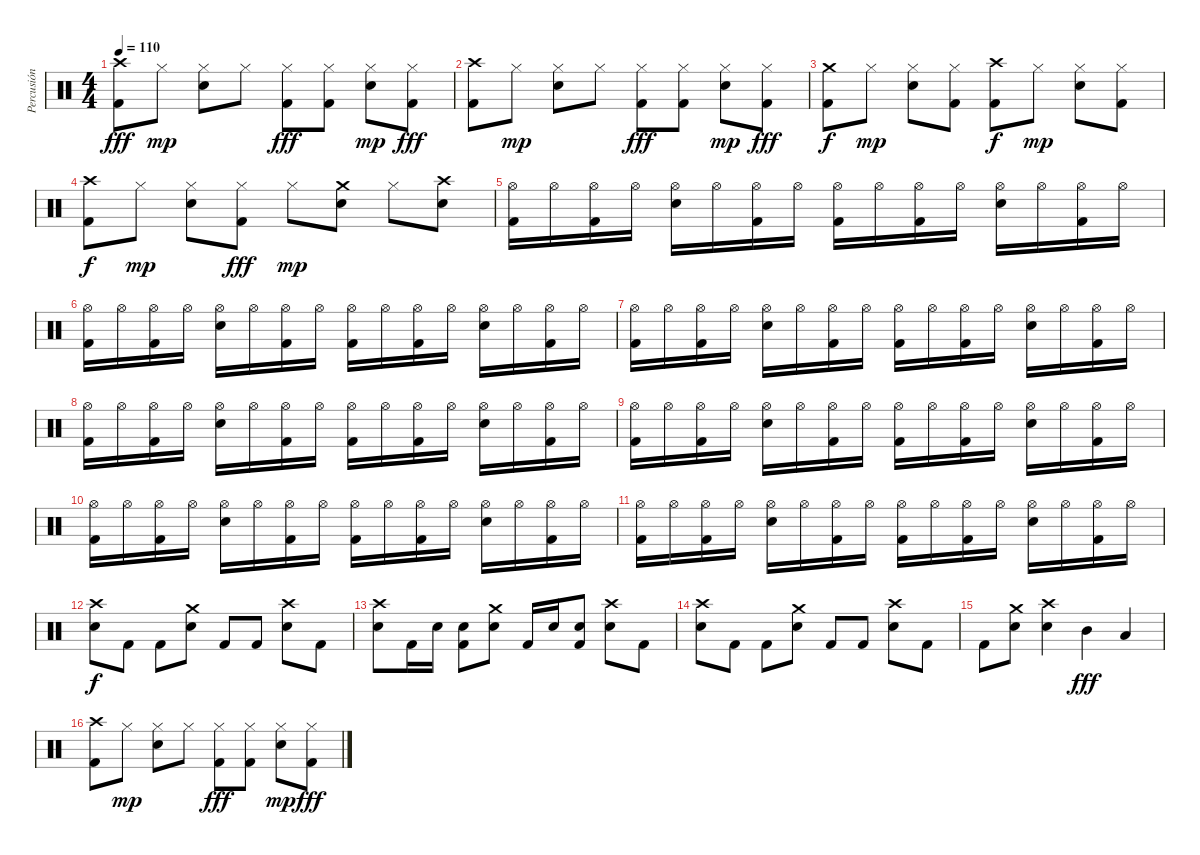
\track ("Percusión" "Percusión") {instrument percussion}
\staff {score}
\articulation defaults
\ts (4 4)
\tempo 110
\clef neutral
\ks c
("Crash high (hit)" "Kick (hit) 2").8{dy fff} "Hi-Hat (closed)".8{dy mp} ("Hi-Hat (closed)" "Snare (hit) 2").8 "Hi-Hat (closed)".8 ("Hi-Hat (closed)" "Kick (hit) 2").8{dy fff} ("Hi-Hat (closed)" "Kick (hit) 2").8 ("Hi-Hat (closed)" "Snare (hit) 2").8{dy mp} ("Hi-Hat (closed)" "Kick (hit) 2").8{dy fff} |
("Crash high (hit)" "Kick (hit) 2").8 "Hi-Hat (closed)".8{dy mp} ("Hi-Hat (closed)" "Snare (hit) 2").8 "Hi-Hat (closed)".8 ("Hi-Hat (closed)" "Kick (hit) 2").8{dy fff} ("Hi-Hat (closed)" "Kick (hit) 2").8 ("Hi-Hat (closed)" "Snare (hit) 2").8{dy mp} ("Hi-Hat (closed)" "Kick (hit) 2").8{dy fff} |
("Crash medium (hit)" "Kick (hit) 2").8{dy f} "Hi-Hat (closed)".8{dy mp} ("Hi-Hat (closed)" "Snare (hit) 2").8 ("Hi-Hat (closed)" "Kick (hit) 2").8 ("Crash high (hit)" "Kick (hit) 2").8{dy f} "Hi-Hat (closed)".8{dy mp} ("Hi-Hat (closed)" "Snare (hit) 2").8 ("Hi-Hat (closed)" "Kick (hit) 2").8 |
("Crash high (hit)" "Kick (hit) 2").8{dy f} "Hi-Hat (closed)".8{dy mp} ("Hi-Hat (closed)" "Snare (hit) 2").8 ("Hi-Hat (closed)" "Kick (hit) 2").8{dy fff} "Hi-Hat (closed)".8{dy mp} ("Crash medium (hit)" "Snare (hit) 2").8 "Hi-Hat (closed)".8 ("Crash high (hit)" "Snare (hit) 2").8 |
("Hi-Hat (open)" "Kick (hit) 2").16 "Hi-Hat (open)".16 ("Hi-Hat (open)" "Kick (hit) 2").16 "Hi-Hat (open)".16 ("Hi-Hat (open)" "Snare (hit) 2").16 "Hi-Hat (open)".16 ("Hi-Hat (open)" "Kick (hit) 2").16 "Hi-Hat (open)".16 ("Hi-Hat (open)" "Kick (hit) 2").16 "Hi-Hat (open)".16 ("Hi-Hat (open)" "Kick (hit) 2").16 "Hi-Hat (open)".16 ("Hi-Hat (open)" "Snare (hit) 2").16 "Hi-Hat (open)".16 ("Hi-Hat (open)" "Kick (hit) 2").16 "Hi-Hat (open)".16 |
("Hi-Hat (open)" "Kick (hit) 2").16 "Hi-Hat (open)".16 ("Hi-Hat (open)" "Kick (hit) 2").16 "Hi-Hat (open)".16 ("Hi-Hat (open)" "Snare (hit) 2").16 "Hi-Hat (open)".16 ("Hi-Hat (open)" "Kick (hit) 2").16 "Hi-Hat (open)".16 ("Hi-Hat (open)" "Kick (hit) 2").16 "Hi-Hat (open)".16 ("Hi-Hat (open)" "Kick (hit) 2").16 "Hi-Hat (open)".16 ("Hi-Hat (open)" "Snare (hit) 2").16 "Hi-Hat (open)".16 ("Hi-Hat (open)" "Kick (hit) 2").16 "Hi-Hat (open)".16 |
("Hi-Hat (open)" "Kick (hit) 2").16 "Hi-Hat (open)".16 ("Hi-Hat (open)" "Kick (hit) 2").16 "Hi-Hat (open)".16 ("Hi-Hat (open)" "Snare (hit) 2").16 "Hi-Hat (open)".16 ("Hi-Hat (open)" "Kick (hit) 2").16 "Hi-Hat (open)".16 ("Hi-Hat (open)" "Kick (hit) 2").16 "Hi-Hat (open)".16 ("Hi-Hat (open)" "Kick (hit) 2").16 "Hi-Hat (open)".16 ("Hi-Hat (open)" "Snare (hit) 2").16 "Hi-Hat (open)".16 ("Hi-Hat (open)" "Kick (hit) 2").16 "Hi-Hat (open)".16 |
("Hi-Hat (open)" "Kick (hit) 2").16 "Hi-Hat (open)".16 ("Hi-Hat (open)" "Kick (hit) 2").16 "Hi-Hat (open)".16 ("Hi-Hat (open)" "Snare (hit) 2").16 "Hi-Hat (open)".16 ("Hi-Hat (open)" "Kick (hit) 2").16 "Hi-Hat (open)".16 ("Hi-Hat (open)" "Kick (hit) 2").16 "Hi-Hat (open)".16 ("Hi-Hat (open)" "Kick (hit) 2").16 "Hi-Hat (open)".16 ("Hi-Hat (open)" "Snare (hit) 2").16 "Hi-Hat (open)".16 ("Hi-Hat (open)" "Kick (hit) 2").16 "Hi-Hat (open)".16 |
("Hi-Hat (open)" "Kick (hit) 2").16 "Hi-Hat (open)".16 ("Hi-Hat (open)" "Kick (hit) 2").16 "Hi-Hat (open)".16 ("Hi-Hat (open)" "Snare (hit) 2").16 "Hi-Hat (open)".16 ("Hi-Hat (open)" "Kick (hit) 2").16 "Hi-Hat (open)".16 ("Hi-Hat (open)" "Kick (hit) 2").16 "Hi-Hat (open)".16 ("Hi-Hat (open)" "Kick (hit) 2").16 "Hi-Hat (open)".16 ("Hi-Hat (open)" "Snare (hit) 2").16 "Hi-Hat (open)".16 ("Hi-Hat (open)" "Kick (hit) 2").16 "Hi-Hat (open)".16 |
("Hi-Hat (open)" "Kick (hit) 2").16 "Hi-Hat (open)".16 ("Hi-Hat (open)" "Kick (hit) 2").16 "Hi-Hat (open)".16 ("Hi-Hat (open)" "Snare (hit) 2").16 "Hi-Hat (open)".16 ("Hi-Hat (open)" "Kick (hit) 2").16 "Hi-Hat (open)".16 ("Hi-Hat (open)" "Kick (hit) 2").16 "Hi-Hat (open)".16 ("Hi-Hat (open)" "Kick (hit) 2").16 "Hi-Hat (open)".16 ("Hi-Hat (open)" "Snare (hit) 2").16 "Hi-Hat (open)".16 ("Hi-Hat (open)" "Kick (hit) 2").16 "Hi-Hat (open)".16 |
("Hi-Hat (open)" "Kick (hit) 2").16 "Hi-Hat (open)".16 ("Hi-Hat (open)" "Kick (hit) 2").16 "Hi-Hat (open)".16 ("Hi-Hat (open)" "Snare (hit) 2").16 "Hi-Hat (open)".16 ("Hi-Hat (open)" "Kick (hit) 2").16 "Hi-Hat (open)".16 ("Hi-Hat (open)" "Kick (hit) 2").16 "Hi-Hat (open)".16 ("Hi-Hat (open)" "Kick (hit) 2").16 "Hi-Hat (open)".16 ("Hi-Hat (open)" "Snare (hit) 2").16 "Hi-Hat (open)".16 ("Hi-Hat (open)" "Kick (hit) 2").16 "Hi-Hat (open)".16 |
("Crash high (hit)" "Snare (hit) 2").8{dy f} "Kick (hit) 2".8 "Kick (hit) 2".8 ("Crash medium (hit)" "Snare (hit) 2").8 "Kick (hit) 2".8 "Kick (hit) 2".8 ("Crash high (hit)" "Snare (hit) 2").8 "Kick (hit) 2".8 |
("Crash high (hit)" "Snare (hit) 2").8 "Kick (hit) 2".16 "Snare (hit) 2".16 ("Snare (hit) 2" "Kick (hit) 2").8 ("Crash medium (hit)" "Snare (hit) 2").8 "Kick (hit) 2".16 "Snare (hit) 2".16 ("Snare (hit) 2" "Kick (hit) 2").8 ("Crash high (hit)" "Snare (hit) 2").8 "Kick (hit) 2".8 |
("Crash high (hit)" "Snare (hit) 2").8 "Kick (hit) 2".8 "Kick (hit) 2".8 ("Crash medium (hit)" "Snare (hit) 2").8 "Kick (hit) 2".8 "Kick (hit) 2".8 ("Crash high (hit)" "Snare (hit) 2").8 "Kick (hit) 2".8 |
"Kick (hit) 2".8 ("Crash medium (hit)" "Snare (hit) 2").8 ("Crash high (hit)" "Snare (hit) 2").4 "Mid Tom (hit)".4{dy fff} "Low Tom (hit)".4 |
("Crash high (hit)" "Kick (hit) 2").8 "Hi-Hat (closed)".8{dy mp} ("Hi-Hat (closed)" "Snare (hit) 2").8 "Hi-Hat (closed)".8 ("Hi-Hat (closed)" "Kick (hit) 2").8{dy fff} ("Hi-Hat (closed)" "Kick (hit) 2").8 ("Hi-Hat (closed)" "Snare (hit) 2").8{dy mp} ("Hi-Hat (closed)" "Kick (hit) 2").8{dy fff}
